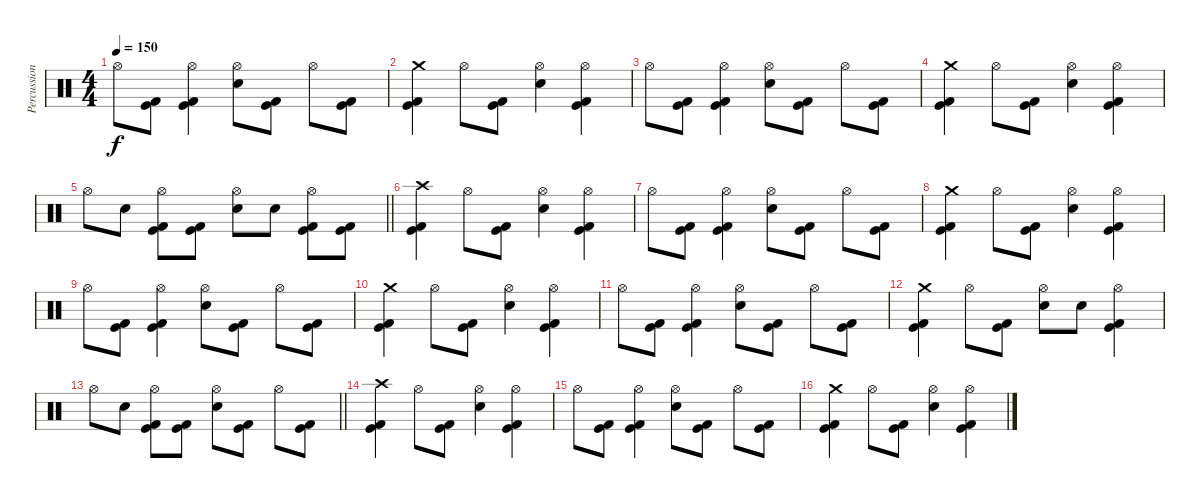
\track ("Percussion" "Percussion") {instrument percussion}
\staff {score}
\articulation defaults
\ts (4 4)
\tempo 150
\clef neutral
\ks c "Hi-Hat (open)".8{dy f}
("Kick (hit)" "Kick (hit) 2").8 ("Hi-Hat (open)" "Kick (hit)" "Kick (hit) 2").4 ("Hi-Hat (open)" "Electric Snare (hit)").8 ("Kick (hit)" "Kick (hit) 2").8 "Hi-Hat (open)".8 ("Kick (hit)" "Kick (hit) 2").8 |
("Crash medium (hit)" "Kick (hit)" "Kick (hit) 2").4 "Hi-Hat (open)".8 ("Kick (hit)" "Kick (hit) 2").8 ("Hi-Hat (open)" "Electric Snare (hit)").4 ("Hi-Hat (open)" "Kick (hit)" "Kick (hit) 2").4 |
"Hi-Hat (open)".8 ("Kick (hit)" "Kick (hit) 2").8 ("Hi-Hat (open)" "Kick (hit)" "Kick (hit) 2").4 ("Hi-Hat (open)" "Electric Snare (hit)").8 ("Kick (hit)" "Kick (hit) 2").8 "Hi-Hat (open)".8 ("Kick (hit)" "Kick (hit) 2").8 |
("Crash medium (hit)" "Kick (hit)" "Kick (hit) 2").4 "Hi-Hat (open)".8 ("Kick (hit)" "Kick (hit) 2").8 ("Hi-Hat (open)" "Electric Snare (hit)").4 ("Hi-Hat (open)" "Kick (hit)" "Kick (hit) 2").4 |
\barLineRight lightlight "Hi-Hat (open)".8 "Electric Snare (hit)".8
("Hi-Hat (open)" "Kick (hit)" "Kick (hit) 2").8 ("Kick (hit)" "Kick (hit) 2").8 ("Hi-Hat (open)" "Electric Snare (hit)").8 "Electric Snare (hit)".8 ("Hi-Hat (open)" "Kick (hit)" "Kick (hit) 2").8 ("Kick (hit)" "Kick (hit) 2").8 |
\section ("" "")
("Crash high (hit)" "Kick (hit)" "Kick (hit) 2").4 "Hi-Hat (open)".8 ("Kick (hit)" "Kick (hit) 2").8 ("Hi-Hat (open)" "Electric Snare (hit)").4 ("Hi-Hat (open)" "Kick (hit)" "Kick (hit) 2").4 |
"Hi-Hat (open)".8 ("Kick (hit)" "Kick (hit) 2").8 ("Hi-Hat (open)" "Kick (hit)" "Kick (hit) 2").4 ("Hi-Hat (open)" "Electric Snare (hit)").8 ("Kick (hit)" "Kick (hit) 2").8 "Hi-Hat (open)".8 ("Kick (hit)" "Kick (hit) 2").8 |
("Crash medium (hit)" "Kick (hit)" "Kick (hit) 2").4 "Hi-Hat (open)".8 ("Kick (hit)" "Kick (hit) 2").8 ("Hi-Hat (open)" "Electric Snare (hit)").4 ("Hi-Hat (open)" "Kick (hit)" "Kick (hit) 2").4 |
"Hi-Hat (open)".8 ("Kick (hit)" "Kick (hit) 2").8 ("Hi-Hat (open)" "Kick (hit)" "Kick (hit) 2").4 ("Hi-Hat (open)" "Electric Snare (hit)").8 ("Kick (hit)" "Kick (hit) 2").8 "Hi-Hat (open)".8 ("Kick (hit)" "Kick (hit) 2").8 |
("Crash medium (hit)" "Kick (hit)" "Kick (hit) 2").4 "Hi-Hat (open)".8 ("Kick (hit)" "Kick (hit) 2").8 ("Hi-Hat (open)" "Electric Snare (hit)").4 ("Hi-Hat (open)" "Kick (hit)" "Kick (hit) 2").4 |
"Hi-Hat (open)".8 ("Kick (hit)" "Kick (hit) 2").8 ("Hi-Hat (open)" "Kick (hit)" "Kick (hit) 2").4 ("Hi-Hat (open)" "Electric Snare (hit)").8 ("Kick (hit)" "Kick (hit) 2").8 "Hi-Hat (open)".8 ("Kick (hit)" "Kick (hit) 2").8 |
("Crash medium (hit)" "Kick (hit)" "Kick (hit) 2").4 "Hi-Hat (open)".8 ("Kick (hit)" "Kick (hit) 2").8 ("Hi-Hat (open)" "Electric Snare (hit)").8 "Electric Snare (hit)".8 ("Hi-Hat (open)" "Kick (hit)" "Kick (hit) 2").4 |
\barLineRight lightlight "Hi-Hat (open)".8 "Electric Snare (hit)".8
("Hi-Hat (open)" "Kick (hit)" "Kick (hit) 2").8 ("Kick (hit)" "Kick (hit) 2").8 ("Hi-Hat (open)" "Electric Snare (hit)").8 ("Kick (hit)" "Kick (hit) 2").8 "Hi-Hat (open)".8 ("Kick (hit)" "Kick (hit) 2").8 |
\section ("" "")
("Crash high (hit)" "Kick (hit)" "Kick (hit) 2").4 "Hi-Hat (open)".8 ("Kick (hit)" "Kick (hit) 2").8 ("Hi-Hat (open)" "Electric Snare (hit)").4 ("Hi-Hat (open)" "Kick (hit)" "Kick (hit) 2").4 |
"Hi-Hat (open)".8 ("Kick (hit)" "Kick (hit) 2").8 ("Hi-Hat (open)" "Kick (hit)" "Kick (hit) 2").4 ("Hi-Hat (open)" "Electric Snare (hit)").8 ("Kick (hit)" "Kick (hit) 2").8 "Hi-Hat (open)".8 ("Kick (hit)" "Kick (hit) 2").8 |
("Crash medium (hit)" "Kick (hit)" "Kick (hit) 2").4 "Hi-Hat (open)".8 ("Kick (hit)" "Kick (hit) 2").8 ("Hi-Hat (open)" "Electric Snare (hit)").4 ("Hi-Hat (open)" "Kick (hit)" "Kick (hit) 2").4
